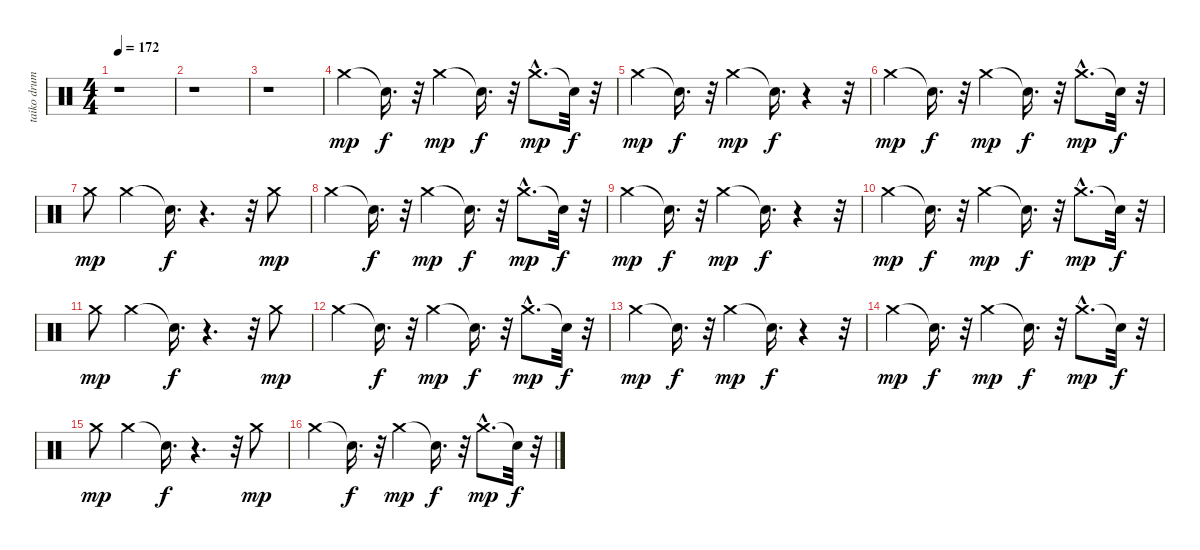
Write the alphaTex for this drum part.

\track ("taiko drums" "taiko drum") {instrument percussion}
\staff {score}
\articulation defaults
\ts (4 4)
\tempo 172
\clef neutral
\ks c
r.1{dy mp} |
r.1 |
r.1 |
"Crash medium (hit)".4 "Snare (hit)"{t}.16{d dy f} r.32 "Crash medium (hit)".4{dy mp} "Snare (hit)"{t}.16{d dy f} r.32 "Crash medium (hit)"{hac}.8{d dy mp} "Snare (hit)"{t}.32{dy f} r.32 |
"Crash medium (hit)".4{dy mp} "Snare (hit)"{t}.16{d dy f} r.32 "Crash medium (hit)".4{dy mp} "Snare (hit)"{t}.16{d dy f} r.4 r.32 |
"Crash medium (hit)".4{dy mp} "Snare (hit)"{t}.16{d dy f} r.32 "Crash medium (hit)".4{dy mp} "Snare (hit)"{t}.16{d dy f} r.32 "Crash medium (hit)"{hac}.8{d dy mp} "Snare (hit)"{t}.32{dy f} r.32 |
"Crash medium (hit)".8{dy mp} "Crash medium (hit)".4 "Snare (hit)"{t}.16{d dy f} r.4{d} r.32 "Crash medium (hit)".8{dy mp} |
"Crash medium (hit)".4 "Snare (hit)"{t}.16{d dy f} r.32 "Crash medium (hit)".4{dy mp} "Snare (hit)"{t}.16{d dy f} r.32 "Crash medium (hit)"{hac}.8{d dy mp} "Snare (hit)"{t}.32{dy f} r.32 |
"Crash medium (hit)".4{dy mp} "Snare (hit)"{t}.16{d dy f} r.32 "Crash medium (hit)".4{dy mp} "Snare (hit)"{t}.16{d dy f} r.4 r.32 |
"Crash medium (hit)".4{dy mp} "Snare (hit)"{t}.16{d dy f} r.32 "Crash medium (hit)".4{dy mp} "Snare (hit)"{t}.16{d dy f} r.32 "Crash medium (hit)"{hac}.8{d dy mp} "Snare (hit)"{t}.32{dy f} r.32 |
"Crash medium (hit)".8{dy mp} "Crash medium (hit)".4 "Snare (hit)"{t}.16{d dy f} r.4{d} r.32 "Crash medium (hit)".8{dy mp} |
"Crash medium (hit)".4 "Snare (hit)"{t}.16{d dy f} r.32 "Crash medium (hit)".4{dy mp} "Snare (hit)"{t}.16{d dy f} r.32 "Crash medium (hit)"{hac}.8{d dy mp} "Snare (hit)"{t}.32{dy f} r.32 |
"Crash medium (hit)".4{dy mp} "Snare (hit)"{t}.16{d dy f} r.32 "Crash medium (hit)".4{dy mp} "Snare (hit)"{t}.16{d dy f} r.4 r.32 |
"Crash medium (hit)".4{dy mp} "Snare (hit)"{t}.16{d dy f} r.32 "Crash medium (hit)".4{dy mp} "Snare (hit)"{t}.16{d dy f} r.32 "Crash medium (hit)"{hac}.8{d dy mp} "Snare (hit)"{t}.32{dy f} r.32 |
"Crash medium (hit)".8{dy mp} "Crash medium (hit)".4 "Snare (hit)"{t}.16{d dy f} r.4{d} r.32 "Crash medium (hit)".8{dy mp} |
"Crash medium (hit)".4 "Snare (hit)"{t}.16{d dy f} r.32 "Crash medium (hit)".4{dy mp} "Snare (hit)"{t}.16{d dy f} r.32 "Crash medium (hit)"{hac}.8{d dy mp} "Snare (hit)"{t}.32{dy f} r.32
